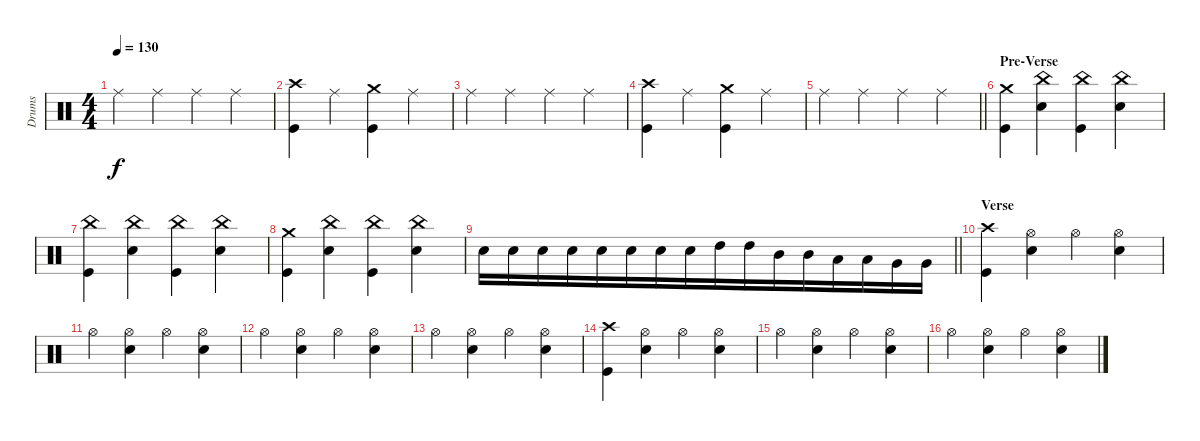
\track ("Drums" "Drums") {instrument percussion}
\staff {score}
\articulation defaults
\ts (4 4)
\tempo 130
\clef neutral
\ks c "Ride (middle)".4{dy f} "Ride (middle)".4{beam merge} "Ride (middle)".4 "Ride (middle)".4
|
("Crash high (hit)" "Kick (hit)").4 "Ride (middle)".4 ("Crash medium (hit)" "Kick (hit)").4 "Ride (middle)".4 |
"Ride (middle)".4 "Ride (middle)".4{beam merge} "Ride (middle)".4 "Ride (middle)".4 |
("Crash high (hit)" "Kick (hit)").4 "Ride (middle)".4 ("Crash medium (hit)" "Kick (hit)").4 "Ride (middle)".4 |
\barLineRight lightlight "Ride (middle)".4 "Ride (middle)".4{beam merge} "Ride (middle)".4 "Ride (middle)".4
|
\section ("" "Pre-Verse")
("Crash medium (hit)" "Kick (hit)").4{beam merge} ("China (hit)" "Snare (hit) 2").4{beam merge} ("China (hit)" "Kick (hit)").4{beam merge} ("China (hit)" "Snare (hit) 2").4 |
("China (hit)" "Kick (hit)").4{beam merge} ("China (hit)" "Snare (hit) 2").4{beam merge} ("China (hit)" "Kick (hit)").4{beam merge} ("China (hit)" "Snare (hit) 2").4 |
("Crash medium (hit)" "Kick (hit)").4{beam merge} ("China (hit)" "Snare (hit) 2").4{beam merge} ("China (hit)" "Kick (hit)").4{beam merge} ("China (hit)" "Snare (hit) 2").4 |
\barLineRight lightlight "Snare (hit) 2".16{beam merge} "Snare (hit) 2".16{beam merge} "Snare (hit) 2".16{beam merge} "Snare (hit) 2".16{beam merge} "Snare (hit) 2".16{beam merge} "Snare (hit) 2".16{beam merge} "Snare (hit) 2".16{beam merge} "Snare (hit) 2".16{beam merge} "High Tom (hit)".16{beam merge} "High Tom (hit)".16{beam merge} "Mid Tom (hit)".16{beam merge} "Mid Tom (hit)".16{beam merge} "Low Tom (hit)".16{beam merge} "Low Tom (hit)".16{beam merge} "Very Low Tom (hit)".16{beam merge} "Very Low Tom (hit)".16
|
\section ("" "Verse")
("Crash high (hit)" "Kick (hit)").4 ("Hi-Hat (open)" "Snare (hit) 2").4 "Hi-Hat (open)".4 ("Hi-Hat (open)" "Snare (hit) 2").4 |
"Hi-Hat (open)".4 ("Hi-Hat (open)" "Snare (hit) 2").4 "Hi-Hat (open)".4 ("Hi-Hat (open)" "Snare (hit) 2").4 |
"Hi-Hat (open)".4 ("Hi-Hat (open)" "Snare (hit) 2").4 "Hi-Hat (open)".4 ("Hi-Hat (open)" "Snare (hit) 2").4 |
"Hi-Hat (open)".4 ("Hi-Hat (open)" "Snare (hit) 2").4 "Hi-Hat (open)".4 ("Hi-Hat (open)" "Snare (hit) 2").4 |
("Crash high (hit)" "Kick (hit)").4 ("Hi-Hat (open)" "Snare (hit) 2").4 "Hi-Hat (open)".4 ("Hi-Hat (open)" "Snare (hit) 2").4 |
"Hi-Hat (open)".4 ("Hi-Hat (open)" "Snare (hit) 2").4 "Hi-Hat (open)".4 ("Hi-Hat (open)" "Snare (hit) 2").4 |
"Hi-Hat (open)".4 ("Hi-Hat (open)" "Snare (hit) 2").4 "Hi-Hat (open)".4 ("Hi-Hat (open)" "Snare (hit) 2").4
